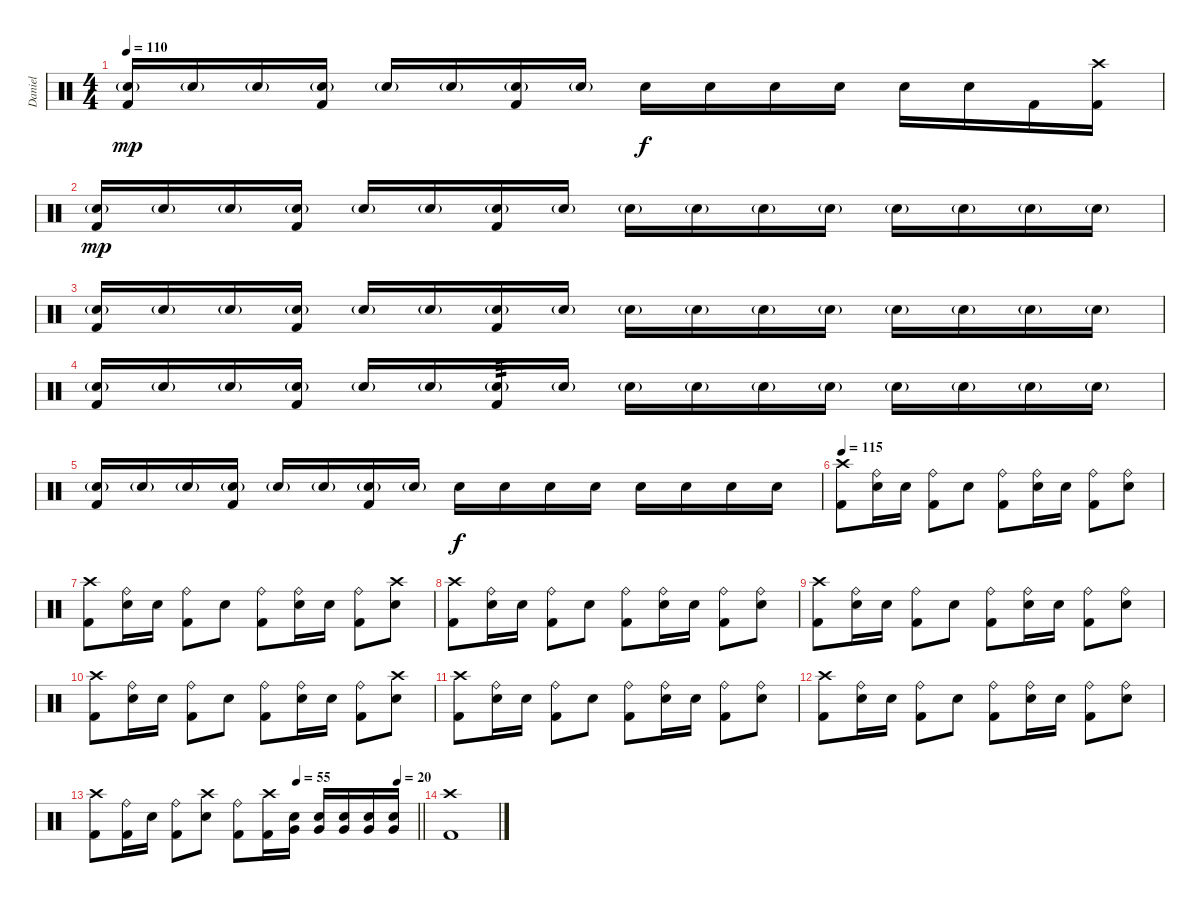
\track ("Daniel" "Daniel") {instrument percussion}
\staff {score}
\articulation defaults
\ts (4 4)
\tempo 110
\clef neutral
\ks c
("Snare (hit) 2"{g} "Kick (hit) 2").16{dy mp} "Snare (hit) 2"{g}.16 "Snare (hit) 2"{g}.16 ("Snare (hit) 2"{g} "Kick (hit) 2").16 "Snare (hit) 2"{g}.16 "Snare (hit) 2"{g}.16 ("Snare (hit) 2"{g} "Kick (hit) 2").16 "Snare (hit) 2"{g}.16 "Snare (hit) 2".16{dy f} "Snare (hit) 2".16 "Snare (hit) 2".16 "Snare (hit) 2".16 "Snare (hit) 2".16 "Snare (hit) 2".16 "Kick (hit) 2".16 ("Crash high (hit)" "Kick (hit) 2").16 |
("Snare (hit) 2"{g} "Kick (hit) 2").16{dy mp} "Snare (hit) 2"{g}.16 "Snare (hit) 2"{g}.16 ("Snare (hit) 2"{g} "Kick (hit) 2").16 "Snare (hit) 2"{g}.16 "Snare (hit) 2"{g}.16 ("Snare (hit) 2"{g} "Kick (hit) 2").16 "Snare (hit) 2"{g}.16 "Snare (hit) 2"{g}.16 "Snare (hit) 2"{g}.16 "Snare (hit) 2"{g}.16 "Snare (hit) 2"{g}.16 "Snare (hit) 2"{g}.16 "Snare (hit) 2"{g}.16 "Snare (hit) 2"{g}.16 "Snare (hit) 2"{g}.16 |
("Snare (hit) 2"{g} "Kick (hit) 2").16 "Snare (hit) 2"{g}.16 "Snare (hit) 2"{g}.16 ("Snare (hit) 2"{g} "Kick (hit) 2").16 "Snare (hit) 2"{g}.16 "Snare (hit) 2"{g}.16 ("Snare (hit) 2"{g} "Kick (hit) 2").16 "Snare (hit) 2"{g}.16 "Snare (hit) 2"{g}.16 "Snare (hit) 2"{g}.16 "Snare (hit) 2"{g}.16 "Snare (hit) 2"{g}.16 "Snare (hit) 2"{g}.16 "Snare (hit) 2"{g}.16 "Snare (hit) 2"{g}.16 "Snare (hit) 2"{g}.16 |
("Snare (hit) 2"{g} "Kick (hit) 2").16 "Snare (hit) 2"{g}.16 "Snare (hit) 2"{g}.16 ("Snare (hit) 2"{g} "Kick (hit) 2").16 "Snare (hit) 2"{g}.16 "Snare (hit) 2"{g}.16 ("Snare (hit) 2"{g} "Kick (hit) 2").16{tp 3} "Snare (hit) 2"{g}.16 "Snare (hit) 2"{g}.16 "Snare (hit) 2"{g}.16 "Snare (hit) 2"{g}.16 "Snare (hit) 2"{g}.16 "Snare (hit) 2"{g}.16 "Snare (hit) 2"{g}.16 "Snare (hit) 2"{g}.16 "Snare (hit) 2"{g}.16 |
("Snare (hit) 2"{g} "Kick (hit) 2").16 "Snare (hit) 2"{g}.16 "Snare (hit) 2"{g}.16 ("Snare (hit) 2"{g} "Kick (hit) 2").16 "Snare (hit) 2"{g}.16 "Snare (hit) 2"{g}.16 ("Snare (hit) 2"{g} "Kick (hit) 2").16 "Snare (hit) 2"{g}.16 "Snare (hit) 2".16{dy f} "Snare (hit) 2".16 "Snare (hit) 2".16 "Snare (hit) 2".16 "Snare (hit) 2".16 "Snare (hit) 2".16 "Snare (hit) 2".16 "Snare (hit) 2".16 |
\tempo 115
("Crash high (hit)" "Kick (hit) 2").8{volume 16} ("Ride (bell)" "Snare (hit) 2").16 "Snare (hit) 2".16 ("Ride (bell)" "Kick (hit) 2").8 "Snare (hit) 2".8 ("Ride (bell)" "Kick (hit) 2").8 ("Ride (bell)" "Snare (hit) 2").16 "Snare (hit) 2".16 ("Ride (bell)" "Kick (hit) 2").8 ("Ride (bell)" "Snare (hit) 2").8 |
("Crash high (hit)" "Kick (hit) 2").8 ("Ride (bell)" "Snare (hit) 2").16 "Snare (hit) 2".16 ("Ride (bell)" "Kick (hit) 2").8 "Snare (hit) 2".8 ("Ride (bell)" "Kick (hit) 2").8 ("Ride (bell)" "Snare (hit) 2").16 "Snare (hit) 2".16 ("Ride (bell)" "Kick (hit) 2").8 ("Crash high (hit)" "Snare (hit) 2").8 |
("Crash high (hit)" "Kick (hit) 2").8 ("Ride (bell)" "Snare (hit) 2").16 "Snare (hit) 2".16 ("Ride (bell)" "Kick (hit) 2").8 "Snare (hit) 2".8 ("Ride (bell)" "Kick (hit) 2").8 ("Ride (bell)" "Snare (hit) 2").16 "Snare (hit) 2".16 ("Ride (bell)" "Kick (hit) 2").8 ("Ride (bell)" "Snare (hit) 2").8 |
("Crash high (hit)" "Kick (hit) 2").8 ("Ride (bell)" "Snare (hit) 2").16 "Snare (hit) 2".16 ("Ride (bell)" "Kick (hit) 2").8 "Snare (hit) 2".8 ("Ride (bell)" "Kick (hit) 2").8 ("Ride (bell)" "Snare (hit) 2").16 "Snare (hit) 2".16 ("Ride (bell)" "Kick (hit) 2").8 ("Ride (bell)" "Snare (hit) 2").8 |
("Crash high (hit)" "Kick (hit) 2").8 ("Ride (bell)" "Snare (hit) 2").16 "Snare (hit) 2".16 ("Ride (bell)" "Kick (hit) 2").8 "Snare (hit) 2".8 ("Ride (bell)" "Kick (hit) 2").8 ("Ride (bell)" "Snare (hit) 2").16 "Snare (hit) 2".16 ("Ride (bell)" "Kick (hit) 2").8 ("Crash high (hit)" "Snare (hit) 2").8 |
("Crash high (hit)" "Kick (hit) 2").8 ("Ride (bell)" "Snare (hit) 2").16 "Snare (hit) 2".16 ("Ride (bell)" "Kick (hit) 2").8 "Snare (hit) 2".8 ("Ride (bell)" "Kick (hit) 2").8 ("Ride (bell)" "Snare (hit) 2").16 "Snare (hit) 2".16 ("Ride (bell)" "Kick (hit) 2").8 ("Ride (bell)" "Snare (hit) 2").8 |
("Crash high (hit)" "Kick (hit) 2").8 ("Ride (bell)" "Snare (hit) 2").16 "Snare (hit) 2".16 ("Ride (bell)" "Kick (hit) 2").8 "Snare (hit) 2".8 ("Ride (bell)" "Kick (hit) 2").8 ("Ride (bell)" "Snare (hit) 2").16 "Snare (hit) 2".16 ("Ride (bell)" "Kick (hit) 2").8 ("Ride (bell)" "Snare (hit) 2").8 |
\tempo (55 0.625)
\tempo (20 0.9375)
\barLineRight lightlight
("Crash high (hit)" "Kick (hit) 2").8 ("Ride (bell)" "Kick (hit) 2").16 "Snare (hit) 2".16 ("Ride (bell)" "Kick (hit) 2").8 ("Crash high (hit)" "Snare (hit) 2").8 ("Ride (bell)" "Kick (hit) 2").8 ("Crash high (hit)" "Kick (hit) 2").16 ("Very Low Tom (hit)" "Snare (hit) 2").16 ("Very Low Tom (hit)" "Snare (hit) 2").16 ("Very Low Tom (hit)" "Snare (hit) 2").16 ("Very Low Tom (hit)" "Snare (hit) 2").16 ("Very Low Tom (hit)" "Snare (hit) 2").16 |
("Crash high (hit)" "Kick (hit) 2").1
